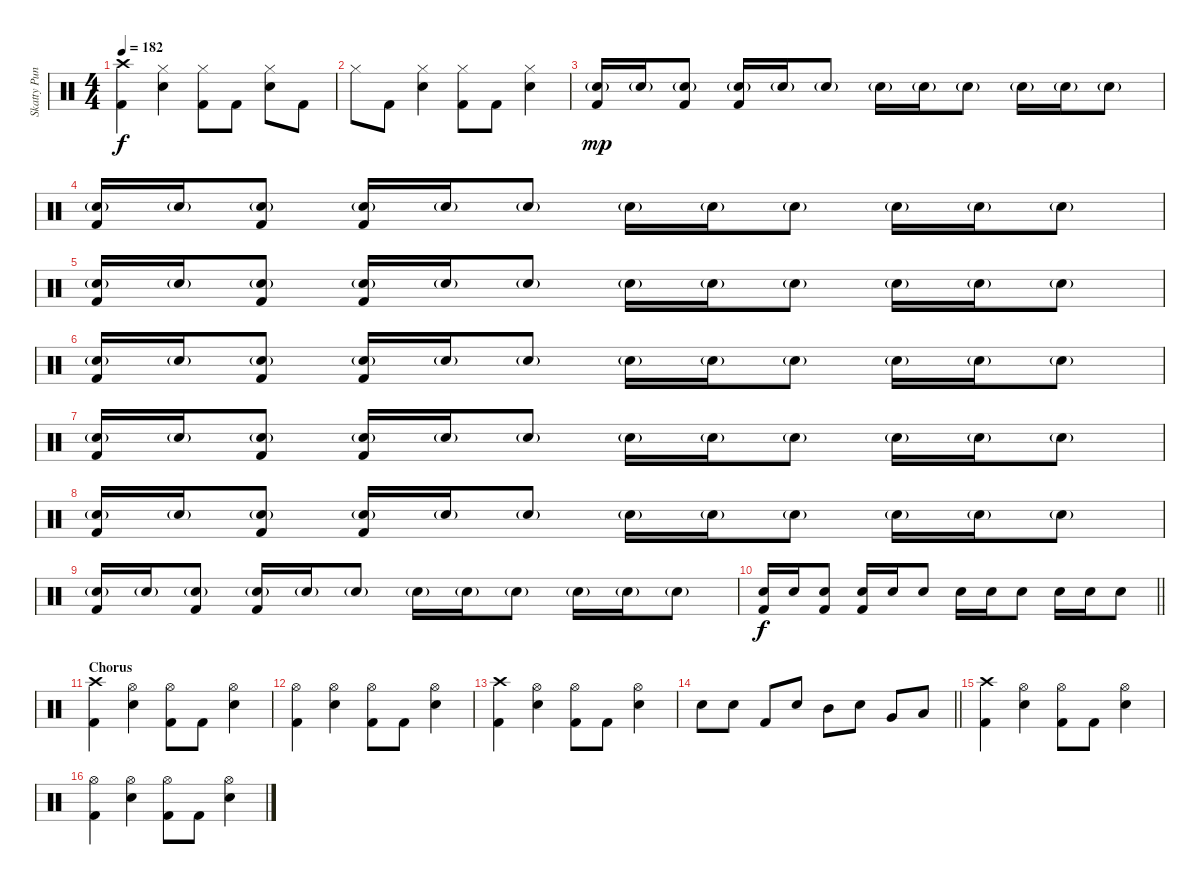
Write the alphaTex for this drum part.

\track ("Skatty Punk Rock" "Skatty Pun") {instrument percussion}
\staff {score}
\articulation defaults
\ts (4 4)
\tempo 182
\clef neutral
\ks c
("Kick (hit) 2" "Crash high (hit)").4{dy f} ("Snare (hit) 2" "Hi-Hat (closed)").4 ("Kick (hit) 2" "Hi-Hat (closed)").8 "Kick (hit) 2".8 ("Snare (hit) 2" "Hi-Hat (closed)").8 "Kick (hit) 2".8 |
"Hi-Hat (closed)".8 "Kick (hit) 2".8 ("Snare (hit) 2" "Hi-Hat (closed)").4 ("Kick (hit) 2" "Hi-Hat (closed)").8 "Kick (hit) 2".8 ("Snare (hit) 2" "Hi-Hat (closed)").4 |
("Snare (hit) 2"{g} "Kick (hit) 2").16{dy mp} "Snare (hit) 2"{g}.16 ("Snare (hit) 2"{g} "Kick (hit) 2").8 ("Snare (hit) 2"{g} "Kick (hit) 2").16 "Snare (hit) 2"{g}.16 "Snare (hit) 2"{g}.8 "Snare (hit) 2"{g}.16 "Snare (hit) 2"{g}.16 "Snare (hit) 2"{g}.8 "Snare (hit) 2"{g}.16 "Snare (hit) 2"{g}.16 "Snare (hit) 2"{g}.8 |
("Snare (hit) 2"{g} "Kick (hit) 2").16 "Snare (hit) 2"{g}.16 ("Snare (hit) 2"{g} "Kick (hit) 2").8 ("Snare (hit) 2"{g} "Kick (hit) 2").16 "Snare (hit) 2"{g}.16 "Snare (hit) 2"{g}.8 "Snare (hit) 2"{g}.16 "Snare (hit) 2"{g}.16 "Snare (hit) 2"{g}.8 "Snare (hit) 2"{g}.16 "Snare (hit) 2"{g}.16 "Snare (hit) 2"{g}.8 |
("Snare (hit) 2"{g} "Kick (hit) 2").16 "Snare (hit) 2"{g}.16 ("Snare (hit) 2"{g} "Kick (hit) 2").8 ("Snare (hit) 2"{g} "Kick (hit) 2").16 "Snare (hit) 2"{g}.16 "Snare (hit) 2"{g}.8 "Snare (hit) 2"{g}.16 "Snare (hit) 2"{g}.16 "Snare (hit) 2"{g}.8 "Snare (hit) 2"{g}.16 "Snare (hit) 2"{g}.16 "Snare (hit) 2"{g}.8 |
("Snare (hit) 2"{g} "Kick (hit) 2").16 "Snare (hit) 2"{g}.16 ("Snare (hit) 2"{g} "Kick (hit) 2").8 ("Snare (hit) 2"{g} "Kick (hit) 2").16 "Snare (hit) 2"{g}.16 "Snare (hit) 2"{g}.8 "Snare (hit) 2"{g}.16 "Snare (hit) 2"{g}.16 "Snare (hit) 2"{g}.8 "Snare (hit) 2"{g}.16 "Snare (hit) 2"{g}.16 "Snare (hit) 2"{g}.8 |
("Snare (hit) 2"{g} "Kick (hit) 2").16 "Snare (hit) 2"{g}.16 ("Snare (hit) 2"{g} "Kick (hit) 2").8 ("Snare (hit) 2"{g} "Kick (hit) 2").16 "Snare (hit) 2"{g}.16 "Snare (hit) 2"{g}.8 "Snare (hit) 2"{g}.16 "Snare (hit) 2"{g}.16 "Snare (hit) 2"{g}.8 "Snare (hit) 2"{g}.16 "Snare (hit) 2"{g}.16 "Snare (hit) 2"{g}.8 |
("Snare (hit) 2"{g} "Kick (hit) 2").16 "Snare (hit) 2"{g}.16 ("Snare (hit) 2"{g} "Kick (hit) 2").8 ("Snare (hit) 2"{g} "Kick (hit) 2").16 "Snare (hit) 2"{g}.16 "Snare (hit) 2"{g}.8 "Snare (hit) 2"{g}.16 "Snare (hit) 2"{g}.16 "Snare (hit) 2"{g}.8 "Snare (hit) 2"{g}.16 "Snare (hit) 2"{g}.16 "Snare (hit) 2"{g}.8 |
("Snare (hit) 2"{g} "Kick (hit) 2").16 "Snare (hit) 2"{g}.16 ("Snare (hit) 2"{g} "Kick (hit) 2").8 ("Snare (hit) 2"{g} "Kick (hit) 2").16 "Snare (hit) 2"{g}.16 "Snare (hit) 2"{g}.8 "Snare (hit) 2"{g}.16 "Snare (hit) 2"{g}.16 "Snare (hit) 2"{g}.8 "Snare (hit) 2"{g}.16 "Snare (hit) 2"{g}.16 "Snare (hit) 2"{g}.8 |
\barLineRight lightlight
("Snare (hit) 2" "Kick (hit) 2").16{dy f} "Snare (hit) 2".16 ("Snare (hit) 2" "Kick (hit) 2").8 ("Snare (hit) 2" "Kick (hit) 2").16 "Snare (hit) 2".16 "Snare (hit) 2".8 "Snare (hit) 2".16 "Snare (hit) 2".16 "Snare (hit) 2".8 "Snare (hit) 2".16 "Snare (hit) 2".16 "Snare (hit) 2".8 |
\section ("" "Chorus")
("Kick (hit) 2" "Crash high (hit)").4 ("Snare (hit) 2" "Hi-Hat (open)").4 ("Kick (hit) 2" "Hi-Hat (open)").8 "Kick (hit) 2".8 ("Snare (hit) 2" "Hi-Hat (open)").4 |
("Kick (hit) 2" "Hi-Hat (open)").4 ("Snare (hit) 2" "Hi-Hat (open)").4 ("Kick (hit) 2" "Hi-Hat (open)").8 "Kick (hit) 2".8 ("Snare (hit) 2" "Hi-Hat (open)").4 |
("Kick (hit) 2" "Crash high (hit)").4 ("Snare (hit) 2" "Hi-Hat (open)").4 ("Kick (hit) 2" "Hi-Hat (open)").8 "Kick (hit) 2".8 ("Snare (hit) 2" "Hi-Hat (open)").4 |
\barLineRight lightlight "Snare (hit) 2".8 "Snare (hit) 2".8 "Kick (hit) 2".8 "Snare (hit) 2".8 "Mid Tom (hit)".8 "Snare (hit) 2".8 "Very Low Tom (hit)".8 "Low Floor Tom (hit)".8
|
("Kick (hit) 2" "Crash high (hit)").4 ("Snare (hit) 2" "Hi-Hat (open)").4 ("Kick (hit) 2" "Hi-Hat (open)").8 "Kick (hit) 2".8 ("Snare (hit) 2" "Hi-Hat (open)").4 |
("Kick (hit) 2" "Hi-Hat (open)").4 ("Snare (hit) 2" "Hi-Hat (open)").4 ("Kick (hit) 2" "Hi-Hat (open)").8 "Kick (hit) 2".8 ("Snare (hit) 2" "Hi-Hat (open)").4
